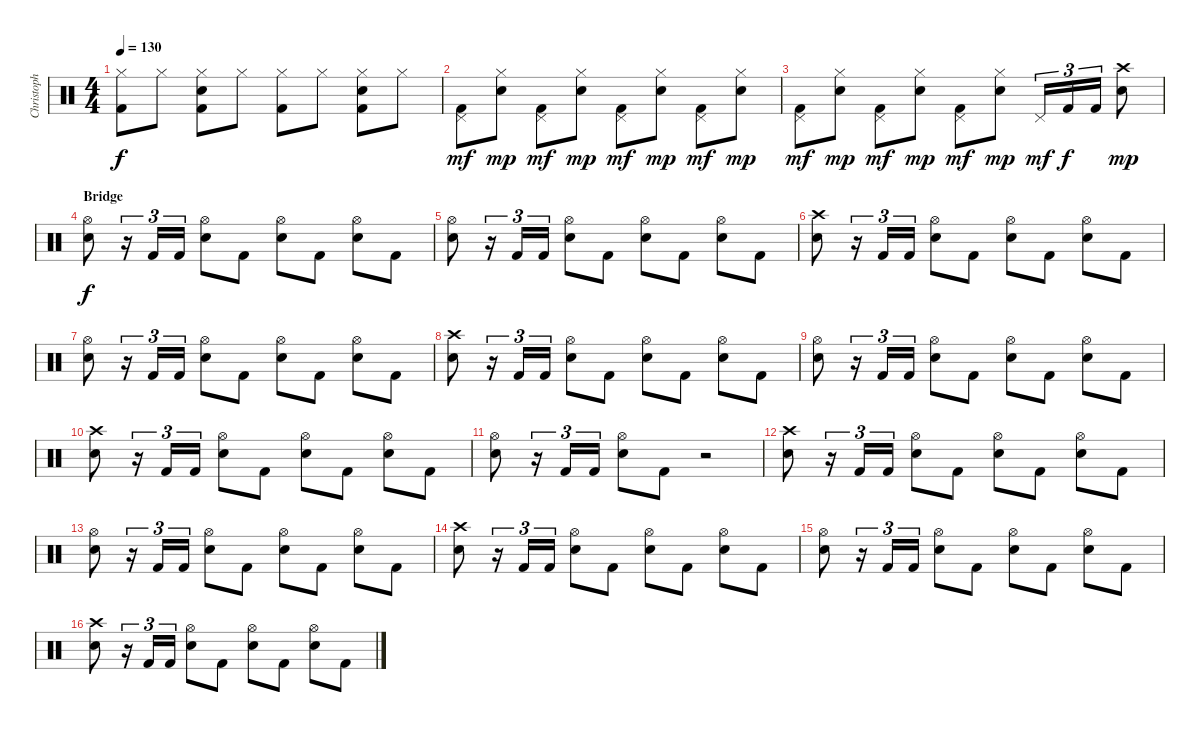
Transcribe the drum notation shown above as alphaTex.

\track ("Christoph" "Christoph") {instrument percussion}
\staff {score}
\articulation defaults
\ts (4 4)
\tempo 130
\clef neutral
\ks c
("Hi-Hat (closed)" "Kick (hit) 2").8{dy f} "Hi-Hat (closed)".8 ("Hi-Hat (closed)" "Electric Snare (hit)" "Kick (hit) 2").8 "Hi-Hat (closed)".8 ("Hi-Hat (closed)" "Kick (hit) 2").8 "Hi-Hat (closed)".8 ("Hi-Hat (closed)" "Electric Snare (hit)" "Kick (hit) 2").8 "Hi-Hat (closed)".8 |
("Pedal Hi-Hat (hit)" "Kick (hit) 2").8{dy mf} ("Hi-Hat (closed)" "Electric Snare (hit)").8{dy mp} ("Pedal Hi-Hat (hit)" "Kick (hit) 2").8{dy mf} ("Hi-Hat (closed)" "Electric Snare (hit)").8{dy mp} ("Pedal Hi-Hat (hit)" "Kick (hit) 2").8{dy mf} ("Hi-Hat (closed)" "Electric Snare (hit)").8{dy mp} ("Pedal Hi-Hat (hit)" "Kick (hit) 2").8{dy mf} ("Hi-Hat (closed)" "Electric Snare (hit)").8{dy mp} |
("Pedal Hi-Hat (hit)" "Kick (hit) 2").8{dy mf} ("Hi-Hat (closed)" "Electric Snare (hit)").8{dy mp} ("Pedal Hi-Hat (hit)" "Kick (hit) 2").8{dy mf} ("Hi-Hat (closed)" "Electric Snare (hit)").8{dy mp} ("Pedal Hi-Hat (hit)" "Kick (hit) 2").8{dy mf} ("Hi-Hat (closed)" "Electric Snare (hit)").8{dy mp} "Pedal Hi-Hat (hit)".16{tu (3 2) dy mf} "Kick (hit) 2".16{tu (3 2) dy f} "Kick (hit) 2".16{tu (3 2)} ("Crash high (hit)" "Electric Snare (hit)").8{dy mp} |
\section ("" "Bridge")
("Hi-Hat (open)" "Electric Snare (hit)").8{dy f} r.16{tu (3 2)} "Kick (hit) 2".16{tu (3 2)} "Kick (hit) 2".16{tu (3 2)} ("Hi-Hat (open)" "Electric Snare (hit)").8 "Kick (hit) 2".8 ("Hi-Hat (open)" "Electric Snare (hit)").8 "Kick (hit) 2".8 ("Hi-Hat (open)" "Electric Snare (hit)").8 "Kick (hit) 2".8 |
("Hi-Hat (open)" "Electric Snare (hit)").8 r.16{tu (3 2)} "Kick (hit) 2".16{tu (3 2)} "Kick (hit) 2".16{tu (3 2)} ("Hi-Hat (open)" "Electric Snare (hit)").8 "Kick (hit) 2".8 ("Hi-Hat (open)" "Electric Snare (hit)").8 "Kick (hit) 2".8 ("Hi-Hat (open)" "Electric Snare (hit)").8 "Kick (hit) 2".8 |
("Crash high (hit)" "Electric Snare (hit)").8 r.16{tu (3 2)} "Kick (hit) 2".16{tu (3 2)} "Kick (hit) 2".16{tu (3 2)} ("Hi-Hat (open)" "Electric Snare (hit)").8 "Kick (hit) 2".8 ("Hi-Hat (open)" "Electric Snare (hit)").8 "Kick (hit) 2".8 ("Hi-Hat (open)" "Electric Snare (hit)").8 "Kick (hit) 2".8 |
("Hi-Hat (open)" "Electric Snare (hit)").8 r.16{tu (3 2)} "Kick (hit) 2".16{tu (3 2)} "Kick (hit) 2".16{tu (3 2)} ("Hi-Hat (open)" "Electric Snare (hit)").8 "Kick (hit) 2".8 ("Hi-Hat (open)" "Electric Snare (hit)").8 "Kick (hit) 2".8 ("Hi-Hat (open)" "Electric Snare (hit)").8 "Kick (hit) 2".8 |
("Crash high (hit)" "Electric Snare (hit)").8 r.16{tu (3 2)} "Kick (hit) 2".16{tu (3 2)} "Kick (hit) 2".16{tu (3 2)} ("Hi-Hat (open)" "Electric Snare (hit)").8 "Kick (hit) 2".8 ("Hi-Hat (open)" "Electric Snare (hit)").8 "Kick (hit) 2".8 ("Hi-Hat (open)" "Electric Snare (hit)").8 "Kick (hit) 2".8 |
("Hi-Hat (open)" "Electric Snare (hit)").8 r.16{tu (3 2)} "Kick (hit) 2".16{tu (3 2)} "Kick (hit) 2".16{tu (3 2)} ("Hi-Hat (open)" "Electric Snare (hit)").8 "Kick (hit) 2".8 ("Hi-Hat (open)" "Electric Snare (hit)").8 "Kick (hit) 2".8 ("Hi-Hat (open)" "Electric Snare (hit)").8 "Kick (hit) 2".8 |
("Crash high (hit)" "Electric Snare (hit)").8 r.16{tu (3 2)} "Kick (hit) 2".16{tu (3 2)} "Kick (hit) 2".16{tu (3 2)} ("Hi-Hat (open)" "Electric Snare (hit)").8 "Kick (hit) 2".8 ("Hi-Hat (open)" "Electric Snare (hit)").8 "Kick (hit) 2".8 ("Hi-Hat (open)" "Electric Snare (hit)").8 "Kick (hit) 2".8 |
("Hi-Hat (open)" "Electric Snare (hit)").8 r.16{tu (3 2)} "Kick (hit) 2".16{tu (3 2)} "Kick (hit) 2".16{tu (3 2)} ("Hi-Hat (open)" "Electric Snare (hit)").8 "Kick (hit) 2".8 r.2 |
("Crash high (hit)" "Electric Snare (hit)").8 r.16{tu (3 2)} "Kick (hit) 2".16{tu (3 2)} "Kick (hit) 2".16{tu (3 2)} ("Hi-Hat (open)" "Electric Snare (hit)").8 "Kick (hit) 2".8 ("Hi-Hat (open)" "Electric Snare (hit)").8 "Kick (hit) 2".8 ("Hi-Hat (open)" "Electric Snare (hit)").8 "Kick (hit) 2".8 |
("Hi-Hat (open)" "Electric Snare (hit)").8 r.16{tu (3 2)} "Kick (hit) 2".16{tu (3 2)} "Kick (hit) 2".16{tu (3 2)} ("Hi-Hat (open)" "Electric Snare (hit)").8 "Kick (hit) 2".8 ("Hi-Hat (open)" "Electric Snare (hit)").8 "Kick (hit) 2".8 ("Hi-Hat (open)" "Electric Snare (hit)").8 "Kick (hit) 2".8 |
("Crash high (hit)" "Electric Snare (hit)").8 r.16{tu (3 2)} "Kick (hit) 2".16{tu (3 2)} "Kick (hit) 2".16{tu (3 2)} ("Hi-Hat (open)" "Electric Snare (hit)").8 "Kick (hit) 2".8 ("Hi-Hat (open)" "Electric Snare (hit)").8 "Kick (hit) 2".8 ("Hi-Hat (open)" "Electric Snare (hit)").8 "Kick (hit) 2".8 |
("Hi-Hat (open)" "Electric Snare (hit)").8 r.16{tu (3 2)} "Kick (hit) 2".16{tu (3 2)} "Kick (hit) 2".16{tu (3 2)} ("Hi-Hat (open)" "Electric Snare (hit)").8 "Kick (hit) 2".8 ("Hi-Hat (open)" "Electric Snare (hit)").8 "Kick (hit) 2".8 ("Hi-Hat (open)" "Electric Snare (hit)").8 "Kick (hit) 2".8 |
("Crash high (hit)" "Electric Snare (hit)").8 r.16{tu (3 2)} "Kick (hit) 2".16{tu (3 2)} "Kick (hit) 2".16{tu (3 2)} ("Hi-Hat (open)" "Electric Snare (hit)").8 "Kick (hit) 2".8 ("Hi-Hat (open)" "Electric Snare (hit)").8 "Kick (hit) 2".8 ("Hi-Hat (open)" "Electric Snare (hit)").8 "Kick (hit) 2".8
